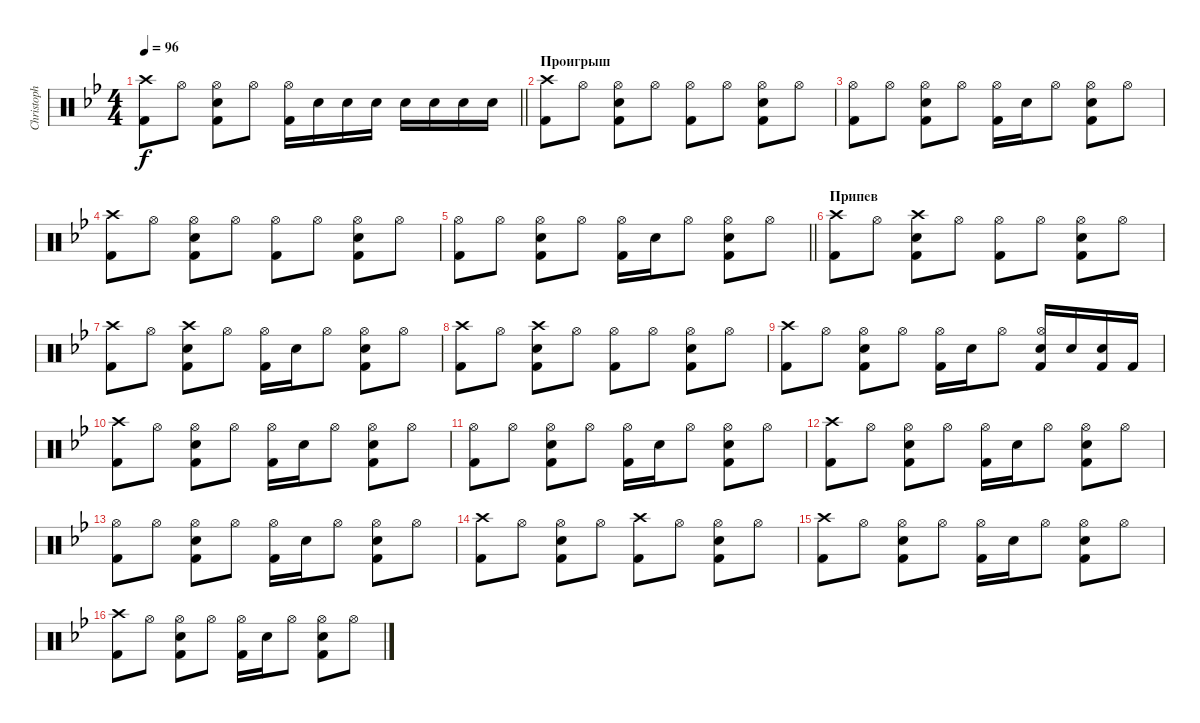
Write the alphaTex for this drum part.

\track ("Christoph Doom Schneider" "Christoph ") {instrument percussion}
\staff {score}
\articulation defaults
\ts (4 4)
\tempo 96
\clef neutral
\barLineRight lightlight
\ks bb
("Crash high (hit)" "Kick (hit) 2").8{dy f} "Hi-Hat (open)".8 ("Snare (hit) 2" "Hi-Hat (open)" "Kick (hit) 2").8 "Hi-Hat (open)".8 ("Hi-Hat (open)" "Kick (hit) 2").16 "Snare (hit) 2".16 "Snare (hit) 2".16 "Snare (hit) 2".16 "Snare (hit) 2".16 "Snare (hit) 2".16 "Snare (hit) 2".16 "Snare (hit) 2".16 |
\section ("" "Проигрыш")
("Crash high (hit)" "Kick (hit) 2").8 "Hi-Hat (open)".8 ("Snare (hit) 2" "Hi-Hat (open)" "Kick (hit) 2").8 "Hi-Hat (open)".8 ("Hi-Hat (open)" "Kick (hit) 2").8 "Hi-Hat (open)".8 ("Snare (hit) 2" "Hi-Hat (open)" "Kick (hit) 2").8 "Hi-Hat (open)".8 |
("Hi-Hat (open)" "Kick (hit) 2").8 "Hi-Hat (open)".8 ("Snare (hit) 2" "Hi-Hat (open)" "Kick (hit) 2").8 "Hi-Hat (open)".8 ("Hi-Hat (open)" "Kick (hit) 2").16 "Snare (hit) 2".16 "Hi-Hat (open)".8 ("Snare (hit) 2" "Hi-Hat (open)" "Kick (hit) 2").8 "Hi-Hat (open)".8 |
("Crash high (hit)" "Kick (hit) 2").8 "Hi-Hat (open)".8 ("Snare (hit) 2" "Hi-Hat (open)" "Kick (hit) 2").8 "Hi-Hat (open)".8 ("Hi-Hat (open)" "Kick (hit) 2").8 "Hi-Hat (open)".8 ("Snare (hit) 2" "Hi-Hat (open)" "Kick (hit) 2").8 "Hi-Hat (open)".8 |
\barLineRight lightlight
("Hi-Hat (open)" "Kick (hit) 2").8 "Hi-Hat (open)".8 ("Snare (hit) 2" "Hi-Hat (open)" "Kick (hit) 2").8 "Hi-Hat (open)".8 ("Hi-Hat (open)" "Kick (hit) 2").16 "Snare (hit) 2".16 "Hi-Hat (open)".8 ("Snare (hit) 2" "Hi-Hat (open)" "Kick (hit) 2").8 "Hi-Hat (open)".8 |
\section ("" "Припев")
("Crash high (hit)" "Kick (hit) 2").8 "Hi-Hat (open)".8 ("Snare (hit) 2" "Kick (hit) 2" "Crash high (hit)").8 "Hi-Hat (open)".8 ("Hi-Hat (open)" "Kick (hit) 2").8 "Hi-Hat (open)".8 ("Snare (hit) 2" "Hi-Hat (open)" "Kick (hit) 2").8 "Hi-Hat (open)".8 |
("Crash high (hit)" "Kick (hit) 2").8 "Hi-Hat (open)".8 ("Snare (hit) 2" "Kick (hit) 2" "Crash high (hit)").8 "Hi-Hat (open)".8 ("Hi-Hat (open)" "Kick (hit) 2").16 "Snare (hit) 2".16 "Hi-Hat (open)".8 ("Snare (hit) 2" "Hi-Hat (open)" "Kick (hit) 2").8 "Hi-Hat (open)".8 |
("Crash high (hit)" "Kick (hit) 2").8 "Hi-Hat (open)".8 ("Snare (hit) 2" "Kick (hit) 2" "Crash high (hit)").8 "Hi-Hat (open)".8 ("Hi-Hat (open)" "Kick (hit) 2").8 "Hi-Hat (open)".8 ("Snare (hit) 2" "Hi-Hat (open)" "Kick (hit) 2").8 "Hi-Hat (open)".8 |
("Crash high (hit)" "Kick (hit) 2").8 "Hi-Hat (open)".8 ("Snare (hit) 2" "Hi-Hat (open)" "Kick (hit) 2").8 "Hi-Hat (open)".8 ("Hi-Hat (open)" "Kick (hit) 2").16 "Snare (hit) 2".16 "Hi-Hat (open)".8 ("Snare (hit) 2" "Hi-Hat (open)" "Kick (hit) 2").16 "Snare (hit) 2".16 ("Snare (hit) 2" "Kick (hit) 2").16 "Kick (hit) 2".16 |
("Crash high (hit)" "Kick (hit) 2").8 "Hi-Hat (open)".8 ("Snare (hit) 2" "Hi-Hat (open)" "Kick (hit) 2").8 "Hi-Hat (open)".8 ("Hi-Hat (open)" "Kick (hit) 2").16 "Snare (hit) 2".16 "Hi-Hat (open)".8 ("Snare (hit) 2" "Hi-Hat (open)" "Kick (hit) 2").8 "Hi-Hat (open)".8 |
("Hi-Hat (open)" "Kick (hit) 2").8 "Hi-Hat (open)".8 ("Snare (hit) 2" "Hi-Hat (open)" "Kick (hit) 2").8 "Hi-Hat (open)".8 ("Hi-Hat (open)" "Kick (hit) 2").16 "Snare (hit) 2".16 "Hi-Hat (open)".8 ("Snare (hit) 2" "Hi-Hat (open)" "Kick (hit) 2").8 "Hi-Hat (open)".8 |
("Crash high (hit)" "Kick (hit) 2").8 "Hi-Hat (open)".8 ("Snare (hit) 2" "Hi-Hat (open)" "Kick (hit) 2").8 "Hi-Hat (open)".8 ("Hi-Hat (open)" "Kick (hit) 2").16 "Snare (hit) 2".16 "Hi-Hat (open)".8 ("Snare (hit) 2" "Hi-Hat (open)" "Kick (hit) 2").8 "Hi-Hat (open)".8 |
("Hi-Hat (open)" "Kick (hit) 2").8 "Hi-Hat (open)".8 ("Snare (hit) 2" "Hi-Hat (open)" "Kick (hit) 2").8 "Hi-Hat (open)".8 ("Hi-Hat (open)" "Kick (hit) 2").16 "Snare (hit) 2".16 "Hi-Hat (open)".8 ("Snare (hit) 2" "Hi-Hat (open)" "Kick (hit) 2").8 "Hi-Hat (open)".8 |
("Crash high (hit)" "Kick (hit) 2").8 "Hi-Hat (open)".8 ("Snare (hit) 2" "Hi-Hat (open)" "Kick (hit) 2").8 "Hi-Hat (open)".8 ("Crash high (hit)" "Kick (hit) 2").8 "Hi-Hat (open)".8 ("Snare (hit) 2" "Hi-Hat (open)" "Kick (hit) 2").8 "Hi-Hat (open)".8 |
("Crash high (hit)" "Kick (hit) 2").8 "Hi-Hat (open)".8 ("Snare (hit) 2" "Hi-Hat (open)" "Kick (hit) 2").8 "Hi-Hat (open)".8 ("Hi-Hat (open)" "Kick (hit) 2").16 "Snare (hit) 2".16 "Hi-Hat (open)".8 ("Snare (hit) 2" "Hi-Hat (open)" "Kick (hit) 2").8 "Hi-Hat (open)".8 |
("Crash high (hit)" "Kick (hit) 2").8 "Hi-Hat (open)".8 ("Snare (hit) 2" "Hi-Hat (open)" "Kick (hit) 2").8 "Hi-Hat (open)".8 ("Hi-Hat (open)" "Kick (hit) 2").16 "Snare (hit) 2".16 "Hi-Hat (open)".8 ("Snare (hit) 2" "Hi-Hat (open)" "Kick (hit) 2").8 "Hi-Hat (open)".8
